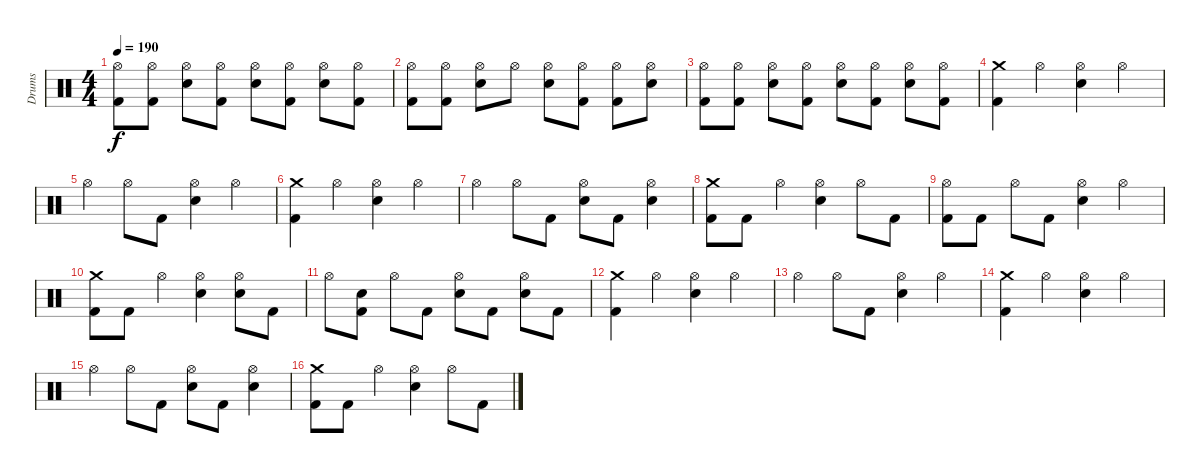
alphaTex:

\track ("Drums" "Drums") {instrument percussion}
\staff {score}
\articulation defaults
\ts (4 4)
\tempo 190
\clef neutral
\ks c
("Kick (hit) 2" "Hi-Hat (open)").8{dy f} ("Kick (hit) 2" "Hi-Hat (open)").8 ("Snare (hit) 2" "Hi-Hat (open)").8 ("Kick (hit) 2" "Hi-Hat (open)").8 ("Snare (hit) 2" "Hi-Hat (open)").8 ("Kick (hit) 2" "Hi-Hat (open)").8 ("Snare (hit) 2" "Hi-Hat (open)").8 ("Kick (hit) 2" "Hi-Hat (open)").8 |
("Kick (hit) 2" "Hi-Hat (open)").8 ("Kick (hit) 2" "Hi-Hat (open)").8 ("Snare (hit) 2" "Hi-Hat (open)").8 "Hi-Hat (open)".8 ("Snare (hit) 2" "Hi-Hat (open)").8 ("Kick (hit) 2" "Hi-Hat (open)").8 ("Kick (hit) 2" "Hi-Hat (open)").8 ("Snare (hit) 2" "Hi-Hat (open)").8 |
("Kick (hit) 2" "Hi-Hat (open)").8 ("Kick (hit) 2" "Hi-Hat (open)").8 ("Snare (hit) 2" "Hi-Hat (open)").8 ("Kick (hit) 2" "Hi-Hat (open)").8 ("Snare (hit) 2" "Hi-Hat (open)").8 ("Kick (hit) 2" "Hi-Hat (open)").8 ("Snare (hit) 2" "Hi-Hat (open)").8 ("Kick (hit) 2" "Hi-Hat (open)").8 |
("Kick (hit) 2" "Crash medium (hit)").4 "Hi-Hat (open)".4 ("Snare (hit) 2" "Hi-Hat (open)").4 "Hi-Hat (open)".4 |
"Hi-Hat (open)".4 "Hi-Hat (open)".8 "Kick (hit) 2".8 ("Snare (hit) 2" "Hi-Hat (open)").4 "Hi-Hat (open)".4 |
("Kick (hit) 2" "Crash medium (hit)").4 "Hi-Hat (open)".4 ("Snare (hit) 2" "Hi-Hat (open)").4 "Hi-Hat (open)".4 |
"Hi-Hat (open)".4 "Hi-Hat (open)".8 "Kick (hit) 2".8 ("Snare (hit) 2" "Hi-Hat (open)").8 "Kick (hit) 2".8 ("Snare (hit) 2" "Hi-Hat (open)").4 |
("Kick (hit) 2" "Crash medium (hit)").8 "Kick (hit) 2".8 "Hi-Hat (open)".4 ("Snare (hit) 2" "Hi-Hat (open)").4 "Hi-Hat (open)".8 "Kick (hit) 2".8 |
("Kick (hit) 2" "Hi-Hat (open)").8 "Kick (hit) 2".8 "Hi-Hat (open)".8 "Kick (hit) 2".8 ("Snare (hit) 2" "Hi-Hat (open)").4 "Hi-Hat (open)".4 |
("Kick (hit) 2" "Crash medium (hit)").8 "Kick (hit) 2".8 "Hi-Hat (open)".4 ("Snare (hit) 2" "Hi-Hat (open)").4 ("Snare (hit) 2" "Hi-Hat (open)").8 "Kick (hit) 2".8 |
"Hi-Hat (open)".8 ("Kick (hit) 2" "Snare (hit) 2").8 "Hi-Hat (open)".8 "Kick (hit) 2".8 ("Snare (hit) 2" "Hi-Hat (open)").8 "Kick (hit) 2".8 ("Snare (hit) 2" "Hi-Hat (open)").8 "Kick (hit) 2".8 |
("Kick (hit) 2" "Crash medium (hit)").4 "Hi-Hat (open)".4 ("Snare (hit) 2" "Hi-Hat (open)").4 "Hi-Hat (open)".4 |
"Hi-Hat (open)".4 "Hi-Hat (open)".8 "Kick (hit) 2".8 ("Snare (hit) 2" "Hi-Hat (open)").4 "Hi-Hat (open)".4 |
("Kick (hit) 2" "Crash medium (hit)").4 "Hi-Hat (open)".4 ("Snare (hit) 2" "Hi-Hat (open)").4 "Hi-Hat (open)".4 |
"Hi-Hat (open)".4 "Hi-Hat (open)".8 "Kick (hit) 2".8 ("Snare (hit) 2" "Hi-Hat (open)").8 "Kick (hit) 2".8 ("Snare (hit) 2" "Hi-Hat (open)").4 |
("Kick (hit) 2" "Crash medium (hit)").8 "Kick (hit) 2".8 "Hi-Hat (open)".4 ("Snare (hit) 2" "Hi-Hat (open)").4 "Hi-Hat (open)".8 "Kick (hit) 2".8
